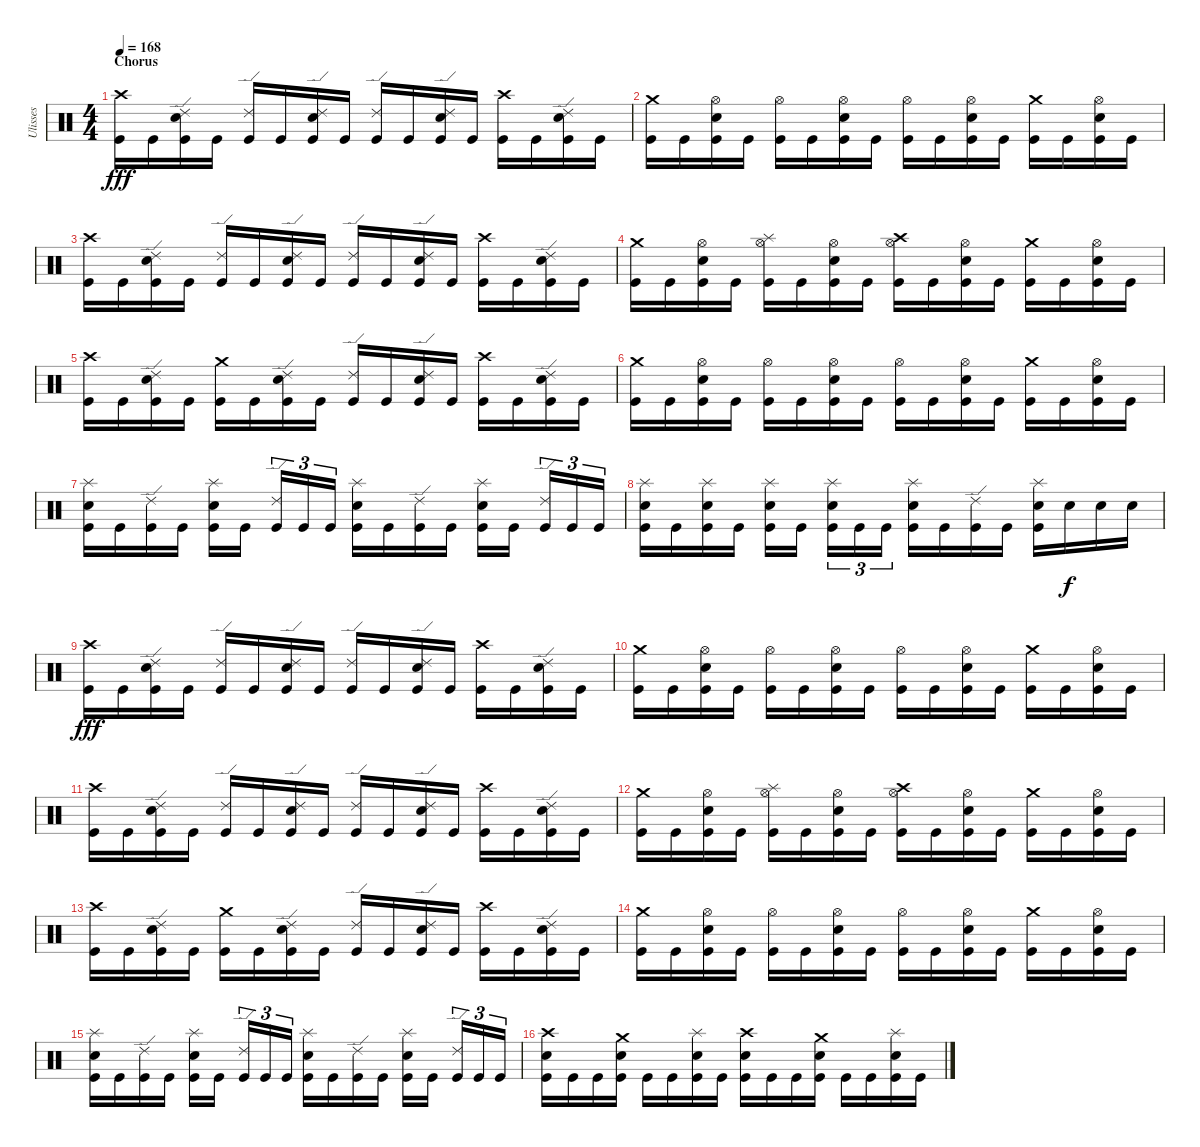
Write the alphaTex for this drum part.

\track ("Ulisses" "Ulisses") {instrument percussion}
\staff {score}
\articulation defaults
\ts (4 4)
\section ("" "Chorus")
\tempo 168
\clef neutral
\ks c
("Crash high (hit)" "Kick (hit)").16{dy fff} "Kick (hit)".16 ("Ride (edge) 2" "Snare (hit) 2" "Kick (hit)").16 "Kick (hit)".16 ("Ride (edge) 2" "Kick (hit)").16 "Kick (hit)".16 ("Ride (edge) 2" "Snare (hit) 2" "Kick (hit)").16 "Kick (hit)".16 ("Ride (edge) 2" "Kick (hit)").16 "Kick (hit)".16 ("Ride (edge) 2" "Snare (hit) 2" "Kick (hit)").16 "Kick (hit)".16 ("Crash high (hit)" "Kick (hit)").16 "Kick (hit)".16 ("Ride (edge) 2" "Snare (hit) 2" "Kick (hit)").16 "Kick (hit)".16 |
("Crash medium (hit)" "Kick (hit)").16 "Kick (hit)".16 ("Hi-Hat (open)" "Snare (hit) 2" "Kick (hit)").16 "Kick (hit)".16 ("Hi-Hat (open)" "Kick (hit)").16 "Kick (hit)".16 ("Hi-Hat (open)" "Snare (hit) 2" "Kick (hit)").16 "Kick (hit)".16 ("Hi-Hat (open)" "Kick (hit)").16 "Kick (hit)".16 ("Hi-Hat (open)" "Snare (hit) 2" "Kick (hit)").16 "Kick (hit)".16 ("Crash medium (hit)" "Kick (hit)").16 "Kick (hit)".16 ("Hi-Hat (open)" "Snare (hit) 2" "Kick (hit)").16 "Kick (hit)".16 |
("Crash high (hit)" "Kick (hit)").16 "Kick (hit)".16 ("Ride (edge) 2" "Snare (hit) 2" "Kick (hit)").16 "Kick (hit)".16 ("Ride (edge) 2" "Kick (hit)").16 "Kick (hit)".16 ("Ride (edge) 2" "Snare (hit) 2" "Kick (hit)").16 "Kick (hit)".16 ("Ride (edge) 2" "Kick (hit)").16 "Kick (hit)".16 ("Ride (edge) 2" "Snare (hit) 2" "Kick (hit)").16 "Kick (hit)".16 ("Crash high (hit)" "Kick (hit)").16 "Kick (hit)".16 ("Ride (edge) 2" "Snare (hit) 2" "Kick (hit)").16 "Kick (hit)".16 |
("Crash medium (hit)" "Kick (hit)").16 "Kick (hit)".16 ("Hi-Hat (open)" "Snare (hit) 2" "Kick (hit)").16 "Kick (hit)".16 ("Hi-Hat (open)" "Splash (hit)" "Kick (hit)").16 "Kick (hit)".16 ("Hi-Hat (open)" "Snare (hit) 2" "Kick (hit)").16 "Kick (hit)".16 ("Hi-Hat (open)" "Crash high (hit)" "Kick (hit)").16 "Kick (hit)".16 ("Hi-Hat (open)" "Snare (hit) 2" "Kick (hit)").16 "Kick (hit)".16 ("Crash medium (hit)" "Kick (hit)").16 "Kick (hit)".16 ("Hi-Hat (open)" "Snare (hit) 2" "Kick (hit)").16 "Kick (hit)".16 |
("Crash high (hit)" "Kick (hit)").16 "Kick (hit)".16 ("Ride (edge) 2" "Snare (hit) 2" "Kick (hit)").16 "Kick (hit)".16 ("Crash medium (hit)" "Kick (hit)").16 "Kick (hit)".16 ("Ride (edge) 2" "Snare (hit) 2" "Kick (hit)").16 "Kick (hit)".16 ("Ride (edge) 2" "Kick (hit)").16 "Kick (hit)".16 ("Ride (edge) 2" "Snare (hit) 2" "Kick (hit)").16 "Kick (hit)".16 ("Crash high (hit)" "Kick (hit)").16 "Kick (hit)".16 ("Ride (edge) 2" "Snare (hit) 2" "Kick (hit)").16 "Kick (hit)".16 |
("Crash medium (hit)" "Kick (hit)").16 "Kick (hit)".16 ("Hi-Hat (open)" "Snare (hit) 2" "Kick (hit)").16 "Kick (hit)".16 ("Hi-Hat (open)" "Kick (hit)").16 "Kick (hit)".16 ("Hi-Hat (open)" "Snare (hit) 2" "Kick (hit)").16 "Kick (hit)".16 ("Hi-Hat (open)" "Kick (hit)").16 "Kick (hit)".16 ("Hi-Hat (open)" "Snare (hit) 2" "Kick (hit)").16 "Kick (hit)".16 ("Crash medium (hit)" "Kick (hit)").16 "Kick (hit)".16 ("Hi-Hat (open)" "Snare (hit) 2" "Kick (hit)").16 "Kick (hit)".16 |
("Splash (hit)" "Snare (hit) 2" "Kick (hit)").16 "Kick (hit)".16 ("Ride (edge) 2" "Kick (hit)").16 "Kick (hit)".16 ("Splash (hit)" "Snare (hit) 2" "Kick (hit)").16 "Kick (hit)".16 ("Ride (edge) 2" "Kick (hit)").16{tu (3 2)} "Kick (hit)".16{tu (3 2)} "Kick (hit)".16{tu (3 2)} ("Splash (hit)" "Snare (hit) 2" "Kick (hit)").16 "Kick (hit)".16 ("Ride (edge) 2" "Kick (hit)").16 "Kick (hit)".16 ("Splash (hit)" "Snare (hit) 2" "Kick (hit)").16 "Kick (hit)".16 ("Ride (edge) 2" "Kick (hit)").16{tu (3 2)} "Kick (hit)".16{tu (3 2)} "Kick (hit)".16{tu (3 2)} |
("Splash (hit)" "Snare (hit) 2" "Kick (hit)").16 "Kick (hit)".16 ("Splash (hit)" "Snare (hit) 2" "Kick (hit)").16 "Kick (hit)".16 ("Splash (hit)" "Snare (hit) 2" "Kick (hit)").16 "Kick (hit)".16 ("Splash (hit)" "Snare (hit) 2" "Kick (hit)").16{tu (3 2)} "Kick (hit)".16{tu (3 2)} "Kick (hit)".16{tu (3 2)} ("Splash (hit)" "Snare (hit) 2" "Kick (hit)").16 "Kick (hit)".16 ("Ride (edge) 2" "Kick (hit)").16 "Kick (hit)".16 ("Splash (hit)" "Snare (hit) 2" "Kick (hit)").16 "Snare (hit) 2".16{dy f} "Snare (hit) 2".16 "Snare (hit) 2".16 |
("Crash high (hit)" "Kick (hit)").16{dy fff} "Kick (hit)".16 ("Ride (edge) 2" "Snare (hit) 2" "Kick (hit)").16 "Kick (hit)".16 ("Ride (edge) 2" "Kick (hit)").16 "Kick (hit)".16 ("Ride (edge) 2" "Snare (hit) 2" "Kick (hit)").16 "Kick (hit)".16 ("Ride (edge) 2" "Kick (hit)").16 "Kick (hit)".16 ("Ride (edge) 2" "Snare (hit) 2" "Kick (hit)").16 "Kick (hit)".16 ("Crash high (hit)" "Kick (hit)").16 "Kick (hit)".16 ("Ride (edge) 2" "Snare (hit) 2" "Kick (hit)").16 "Kick (hit)".16 |
("Crash medium (hit)" "Kick (hit)").16 "Kick (hit)".16 ("Hi-Hat (open)" "Snare (hit) 2" "Kick (hit)").16 "Kick (hit)".16 ("Hi-Hat (open)" "Kick (hit)").16 "Kick (hit)".16 ("Hi-Hat (open)" "Snare (hit) 2" "Kick (hit)").16 "Kick (hit)".16 ("Hi-Hat (open)" "Kick (hit)").16 "Kick (hit)".16 ("Hi-Hat (open)" "Snare (hit) 2" "Kick (hit)").16 "Kick (hit)".16 ("Crash medium (hit)" "Kick (hit)").16 "Kick (hit)".16 ("Hi-Hat (open)" "Snare (hit) 2" "Kick (hit)").16 "Kick (hit)".16 |
("Crash high (hit)" "Kick (hit)").16 "Kick (hit)".16 ("Ride (edge) 2" "Snare (hit) 2" "Kick (hit)").16 "Kick (hit)".16 ("Ride (edge) 2" "Kick (hit)").16 "Kick (hit)".16 ("Ride (edge) 2" "Snare (hit) 2" "Kick (hit)").16 "Kick (hit)".16 ("Ride (edge) 2" "Kick (hit)").16 "Kick (hit)".16 ("Ride (edge) 2" "Snare (hit) 2" "Kick (hit)").16 "Kick (hit)".16 ("Crash high (hit)" "Kick (hit)").16 "Kick (hit)".16 ("Ride (edge) 2" "Snare (hit) 2" "Kick (hit)").16 "Kick (hit)".16 |
("Crash medium (hit)" "Kick (hit)").16 "Kick (hit)".16 ("Hi-Hat (open)" "Snare (hit) 2" "Kick (hit)").16 "Kick (hit)".16 ("Hi-Hat (open)" "Splash (hit)" "Kick (hit)").16 "Kick (hit)".16 ("Hi-Hat (open)" "Snare (hit) 2" "Kick (hit)").16 "Kick (hit)".16 ("Hi-Hat (open)" "Crash high (hit)" "Kick (hit)").16 "Kick (hit)".16 ("Hi-Hat (open)" "Snare (hit) 2" "Kick (hit)").16 "Kick (hit)".16 ("Crash medium (hit)" "Kick (hit)").16 "Kick (hit)".16 ("Hi-Hat (open)" "Snare (hit) 2" "Kick (hit)").16 "Kick (hit)".16 |
("Crash high (hit)" "Kick (hit)").16 "Kick (hit)".16 ("Ride (edge) 2" "Snare (hit) 2" "Kick (hit)").16 "Kick (hit)".16 ("Crash medium (hit)" "Kick (hit)").16 "Kick (hit)".16 ("Ride (edge) 2" "Snare (hit) 2" "Kick (hit)").16 "Kick (hit)".16 ("Ride (edge) 2" "Kick (hit)").16 "Kick (hit)".16 ("Ride (edge) 2" "Snare (hit) 2" "Kick (hit)").16 "Kick (hit)".16 ("Crash high (hit)" "Kick (hit)").16 "Kick (hit)".16 ("Ride (edge) 2" "Snare (hit) 2" "Kick (hit)").16 "Kick (hit)".16 |
("Crash medium (hit)" "Kick (hit)").16 "Kick (hit)".16 ("Hi-Hat (open)" "Snare (hit) 2" "Kick (hit)").16 "Kick (hit)".16 ("Hi-Hat (open)" "Kick (hit)").16 "Kick (hit)".16 ("Hi-Hat (open)" "Snare (hit) 2" "Kick (hit)").16 "Kick (hit)".16 ("Hi-Hat (open)" "Kick (hit)").16 "Kick (hit)".16 ("Hi-Hat (open)" "Snare (hit) 2" "Kick (hit)").16 "Kick (hit)".16 ("Crash medium (hit)" "Kick (hit)").16 "Kick (hit)".16 ("Hi-Hat (open)" "Snare (hit) 2" "Kick (hit)").16 "Kick (hit)".16 |
("Splash (hit)" "Snare (hit) 2" "Kick (hit)").16 "Kick (hit)".16 ("Ride (edge) 2" "Kick (hit)").16 "Kick (hit)".16 ("Splash (hit)" "Snare (hit) 2" "Kick (hit)").16 "Kick (hit)".16 ("Ride (edge) 2" "Kick (hit)").16{tu (3 2)} "Kick (hit)".16{tu (3 2)} "Kick (hit)".16{tu (3 2)} ("Splash (hit)" "Snare (hit) 2" "Kick (hit)").16 "Kick (hit)".16 ("Ride (edge) 2" "Kick (hit)").16 "Kick (hit)".16 ("Splash (hit)" "Snare (hit) 2" "Kick (hit)").16 "Kick (hit)".16 ("Ride (edge) 2" "Kick (hit)").16{tu (3 2)} "Kick (hit)".16{tu (3 2)} "Kick (hit)".16{tu (3 2)} |
("Crash high (hit)" "Snare (hit) 2" "Kick (hit)").16 "Kick (hit)".16 "Kick (hit)".16 ("Crash medium (hit)" "Snare (hit) 2" "Kick (hit)").16 "Kick (hit)".16 "Kick (hit)".16 ("Splash (hit)" "Snare (hit) 2" "Kick (hit)").16 "Kick (hit)".16 ("Crash high (hit)" "Snare (hit) 2" "Kick (hit)").16 "Kick (hit)".16 "Kick (hit)".16 ("Crash medium (hit)" "Snare (hit) 2" "Kick (hit)").16 "Kick (hit)".16 "Kick (hit)".16 ("Splash (hit)" "Snare (hit) 2" "Kick (hit)").16 "Kick (hit)".16
